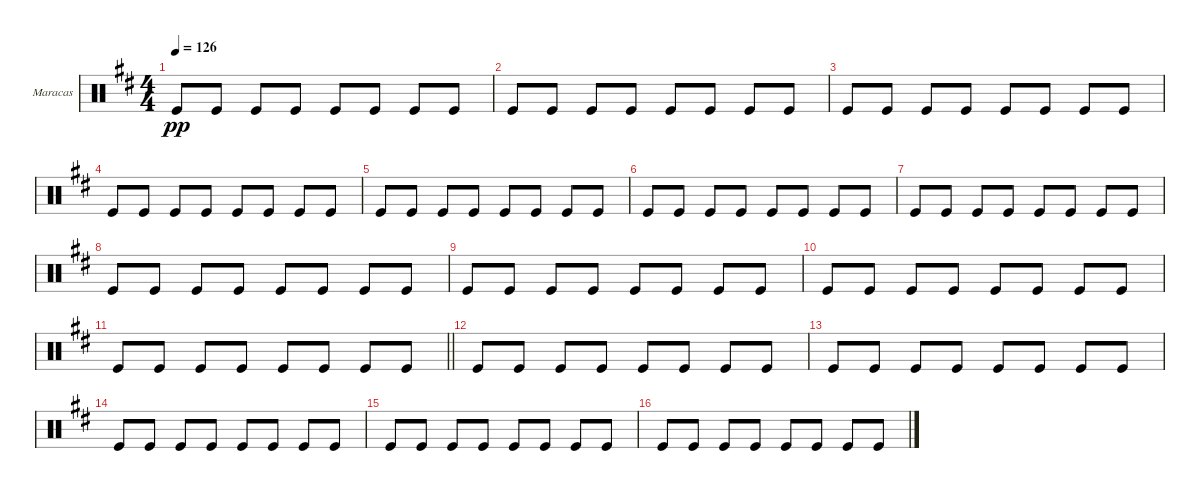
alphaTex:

\bracketExtendMode groupsimilarinstruments
\firstSystemTrackNameOrientation horizontal
\otherSystemsTrackNameOrientation horizontal
\track ("Maracas" "Maracas") {instrument percussion}
\staff {score}
\articulation defaults
\ts (4 4)
\tempo 126
\clef neutral
\ks d "Kick (hit)".8{dy pp} "Kick (hit)".8 "Kick (hit)".8 "Kick (hit)".8 "Kick (hit)".8 "Kick (hit)".8 "Kick (hit)".8 "Kick (hit)".8
|
"Kick (hit)".8 "Kick (hit)".8 "Kick (hit)".8 "Kick (hit)".8 "Kick (hit)".8 "Kick (hit)".8 "Kick (hit)".8 "Kick (hit)".8 |
\scale
0.63882 "Kick (hit)".8 "Kick (hit)".8 "Kick (hit)".8 "Kick (hit)".8 "Kick (hit)".8 "Kick (hit)".8 "Kick (hit)".8 "Kick (hit)".8 |
\scale
0.361294 "Kick (hit)".8 "Kick (hit)".8 "Kick (hit)".8 "Kick (hit)".8 "Kick (hit)".8 "Kick (hit)".8 "Kick (hit)".8 "Kick (hit)".8 |
"Kick (hit)".8 "Kick (hit)".8 "Kick (hit)".8 "Kick (hit)".8 "Kick (hit)".8 "Kick (hit)".8 "Kick (hit)".8 "Kick (hit)".8 |
"Kick (hit)".8 "Kick (hit)".8 "Kick (hit)".8 "Kick (hit)".8 "Kick (hit)".8 "Kick (hit)".8 "Kick (hit)".8 "Kick (hit)".8 |
"Kick (hit)".8 "Kick (hit)".8 "Kick (hit)".8 "Kick (hit)".8 "Kick (hit)".8 "Kick (hit)".8 "Kick (hit)".8 "Kick (hit)".8 |
"Kick (hit)".8 "Kick (hit)".8 "Kick (hit)".8 "Kick (hit)".8 "Kick (hit)".8 "Kick (hit)".8 "Kick (hit)".8 "Kick (hit)".8 |
\scale
0.541118 "Kick (hit)".8 "Kick (hit)".8 "Kick (hit)".8 "Kick (hit)".8 "Kick (hit)".8 "Kick (hit)".8 "Kick (hit)".8 "Kick (hit)".8 |
\scale
0.458882 "Kick (hit)".8 "Kick (hit)".8 "Kick (hit)".8 "Kick (hit)".8 "Kick (hit)".8 "Kick (hit)".8 "Kick (hit)".8 "Kick (hit)".8 |
\barLineRight lightlight "Kick (hit)".8 "Kick (hit)".8 "Kick (hit)".8 "Kick (hit)".8 "Kick (hit)".8 "Kick (hit)".8 "Kick (hit)".8 "Kick (hit)".8
|
"Kick (hit)".8 "Kick (hit)".8 "Kick (hit)".8 "Kick (hit)".8 "Kick (hit)".8 "Kick (hit)".8 "Kick (hit)".8 "Kick (hit)".8 |
"Kick (hit)".8 "Kick (hit)".8 "Kick (hit)".8 "Kick (hit)".8 "Kick (hit)".8 "Kick (hit)".8 "Kick (hit)".8 "Kick (hit)".8 |
"Kick (hit)".8 "Kick (hit)".8 "Kick (hit)".8 "Kick (hit)".8 "Kick (hit)".8 "Kick (hit)".8 "Kick (hit)".8 "Kick (hit)".8 |
"Kick (hit)".8 "Kick (hit)".8 "Kick (hit)".8 "Kick (hit)".8 "Kick (hit)".8 "Kick (hit)".8 "Kick (hit)".8 "Kick (hit)".8 |
"Kick (hit)".8 "Kick (hit)".8 "Kick (hit)".8 "Kick (hit)".8 "Kick (hit)".8 "Kick (hit)".8 "Kick (hit)".8 "Kick (hit)".8
